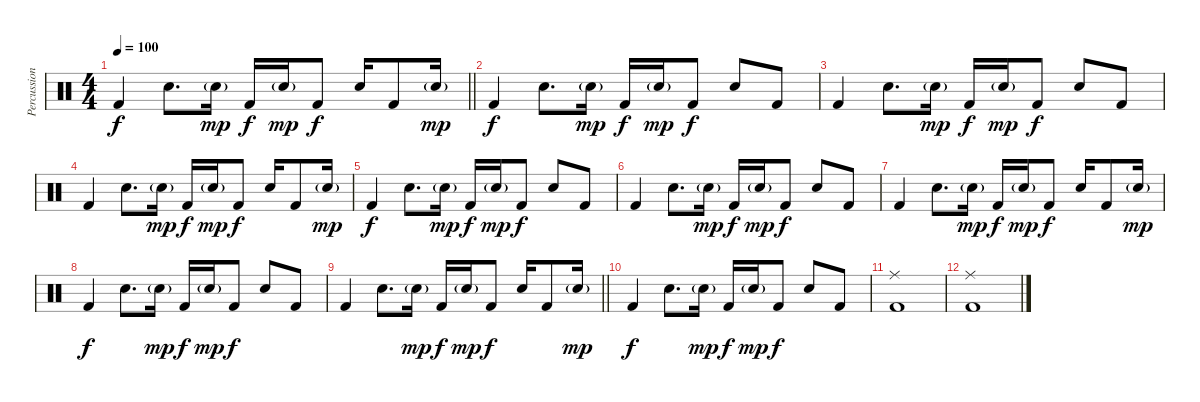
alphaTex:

\track ("Percussion" "Percussion") {instrument percussion}
\staff {score}
\articulation defaults
\ts (4 4)
\tempo 100
\clef neutral
\barLineRight lightlight
\ks c "Kick (hit) 2".4{dy f} "Snare (hit) 2".8{d} "Snare (hit) 2"{g}.16{dy mp} "Kick (hit) 2".16{dy f} "Snare (hit) 2"{g}.16{dy mp} "Kick (hit) 2".8{dy f} "Snare (hit) 2".16 "Kick (hit) 2".8 "Snare (hit) 2"{g}.16{dy mp}
|
"Kick (hit) 2".4{dy f} "Snare (hit) 2".8{d} "Snare (hit) 2"{g}.16{dy mp} "Kick (hit) 2".16{dy f} "Snare (hit) 2"{g}.16{dy mp} "Kick (hit) 2".8{dy f} "Snare (hit) 2".8 "Kick (hit) 2".8 |
"Kick (hit) 2".4 "Snare (hit) 2".8{d} "Snare (hit) 2"{g}.16{dy mp} "Kick (hit) 2".16{dy f} "Snare (hit) 2"{g}.16{dy mp} "Kick (hit) 2".8{dy f} "Snare (hit) 2".8 "Kick (hit) 2".8 |
"Kick (hit) 2".4 "Snare (hit) 2".8{d} "Snare (hit) 2"{g}.16{dy mp} "Kick (hit) 2".16{dy f} "Snare (hit) 2"{g}.16{dy mp} "Kick (hit) 2".8{dy f} "Snare (hit) 2".16 "Kick (hit) 2".8 "Snare (hit) 2"{g}.16{dy mp} |
"Kick (hit) 2".4{dy f} "Snare (hit) 2".8{d} "Snare (hit) 2"{g}.16{dy mp} "Kick (hit) 2".16{dy f} "Snare (hit) 2"{g}.16{dy mp} "Kick (hit) 2".8{dy f} "Snare (hit) 2".8 "Kick (hit) 2".8 |
"Kick (hit) 2".4 "Snare (hit) 2".8{d} "Snare (hit) 2"{g}.16{dy mp} "Kick (hit) 2".16{dy f} "Snare (hit) 2"{g}.16{dy mp} "Kick (hit) 2".8{dy f} "Snare (hit) 2".8 "Kick (hit) 2".8 |
"Kick (hit) 2".4 "Snare (hit) 2".8{d} "Snare (hit) 2"{g}.16{dy mp} "Kick (hit) 2".16{dy f} "Snare (hit) 2"{g}.16{dy mp} "Kick (hit) 2".8{dy f} "Snare (hit) 2".16 "Kick (hit) 2".8 "Snare (hit) 2"{g}.16{dy mp} |
"Kick (hit) 2".4{dy f} "Snare (hit) 2".8{d} "Snare (hit) 2"{g}.16{dy mp} "Kick (hit) 2".16{dy f} "Snare (hit) 2"{g}.16{dy mp} "Kick (hit) 2".8{dy f} "Snare (hit) 2".8 "Kick (hit) 2".8 |
\barLineRight lightlight "Kick (hit) 2".4 "Snare (hit) 2".8{d} "Snare (hit) 2"{g}.16{dy mp} "Kick (hit) 2".16{dy f} "Snare (hit) 2"{g}.16{dy mp} "Kick (hit) 2".8{dy f} "Snare (hit) 2".16 "Kick (hit) 2".8 "Snare (hit) 2"{g}.16{dy mp}
|
"Kick (hit) 2".4{dy f} "Snare (hit) 2".8{d} "Snare (hit) 2"{g}.16{dy mp} "Kick (hit) 2".16{dy f} "Snare (hit) 2"{g}.16{dy mp} "Kick (hit) 2".8{dy f} "Snare (hit) 2".8 "Kick (hit) 2".8 |
("Ride (middle)" "Kick (hit) 2").1 |
("Ride (middle)" "Kick (hit) 2").1
